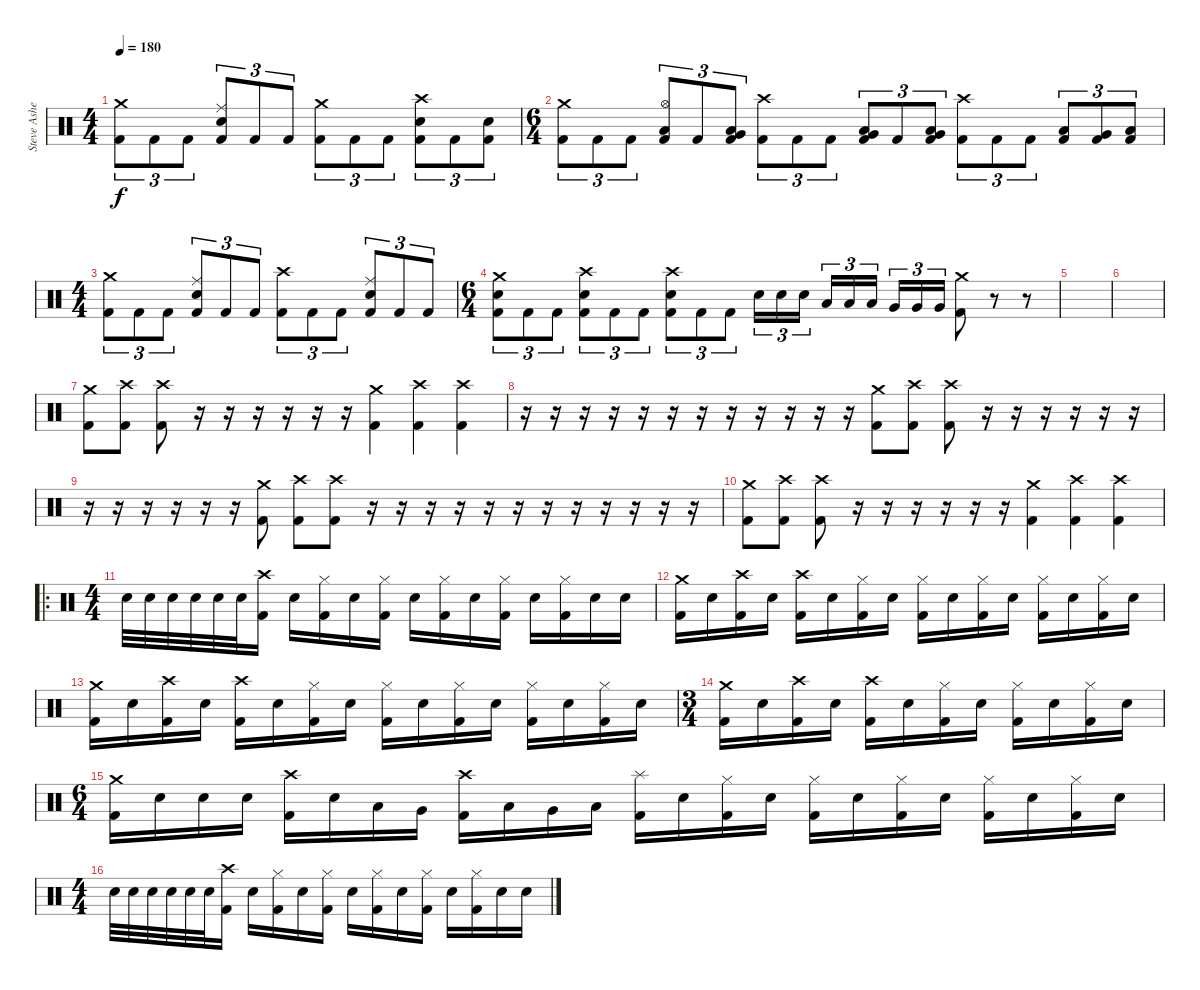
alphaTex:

\track ("Steve Asheim" "Steve Ashe") {instrument percussion}
\staff {score}
\articulation defaults
\ts (4 4)
\tempo 180
\clef neutral
\ks c
("Crash medium (hit)" "Kick (hit) 2").8{tu (3 2) dy f} "Kick (hit) 2".8{tu (3 2)} "Kick (hit) 2".8{tu (3 2)} ("Ride (middle)" "Snare (hit) 2" "Kick (hit) 2").8{tu (3 2)} "Kick (hit) 2".8{tu (3 2)} "Kick (hit) 2".8{tu (3 2)} ("Crash medium (hit)" "Kick (hit) 2").8{tu (3 2)} "Kick (hit) 2".8{tu (3 2)} "Kick (hit) 2".8{tu (3 2)} ("Crash high (hit)" "Snare (hit) 2" "Kick (hit) 2").8{tu (3 2)} "Kick (hit) 2".8{tu (3 2)} ("Snare (hit) 2" "Kick (hit) 2").8{tu (3 2)} |
\ts (6 4)
("Crash medium (hit)" "Kick (hit) 2").8{tu (3 2)} "Kick (hit) 2".8{tu (3 2)} "Kick (hit) 2".8{tu (3 2)} ("Hi-Hat (open)" "Low Tom (hit)" "Kick (hit) 2").8{tu (3 2)} "Kick (hit) 2".8{tu (3 2)} ("Low Tom (hit)" "Very Low Tom (hit)" "Kick (hit) 2").8{tu (3 2)} ("Crash high (hit)" "Kick (hit) 2").8{tu (3 2)} "Kick (hit) 2".8{tu (3 2)} "Kick (hit) 2".8{tu (3 2)} ("Low Tom (hit)" "Very Low Tom (hit)" "Kick (hit) 2").8{tu (3 2)} "Kick (hit) 2".8{tu (3 2)} ("Very Low Tom (hit)" "Low Floor Tom (hit)" "Kick (hit) 2").8{tu (3 2)} ("Crash high (hit)" "Kick (hit) 2").8{tu (3 2)} "Kick (hit) 2".8{tu (3 2)} "Kick (hit) 2".8{tu (3 2)} ("Low Tom (hit)" "Kick (hit) 2").8{tu (3 2)} ("Very Low Tom (hit)" "Kick (hit) 2").8{tu (3 2)} ("Low Floor Tom (hit)" "Kick (hit) 2").8{tu (3 2)} |
\ts (4 4)
("Crash medium (hit)" "Kick (hit) 2").8{tu (3 2)} "Kick (hit) 2".8{tu (3 2)} "Kick (hit) 2".8{tu (3 2)} ("Ride (middle)" "Snare (hit) 2" "Kick (hit) 2").8{tu (3 2)} "Kick (hit) 2".8{tu (3 2)} "Kick (hit) 2".8{tu (3 2)} ("Crash high (hit)" "Kick (hit) 2").8{tu (3 2)} "Kick (hit) 2".8{tu (3 2)} "Kick (hit) 2".8{tu (3 2)} ("Ride (middle)" "Snare (hit) 2" "Kick (hit) 2").8{tu (3 2)} "Kick (hit) 2".8{tu (3 2)} "Kick (hit) 2".8{tu (3 2)} |
\ts (6 4)
("Crash medium (hit)" "Snare (hit) 2" "Kick (hit) 2").8{tu (3 2)} "Kick (hit) 2".8{tu (3 2)} "Kick (hit) 2".8{tu (3 2)} ("Crash high (hit)" "Snare (hit) 2" "Kick (hit) 2").8{tu (3 2)} "Kick (hit) 2".8{tu (3 2)} "Kick (hit) 2".8{tu (3 2)} ("Crash high (hit)" "Snare (hit) 2" "Kick (hit) 2").8{tu (3 2)} "Kick (hit) 2".8{tu (3 2)} "Kick (hit) 2".8{tu (3 2)} "Snare (hit) 2".16{tu (3 2)} "Snare (hit) 2".16{tu (3 2)} "Snare (hit) 2".16{tu (3 2) beam splitsecondary} "Low Tom (hit)".16{tu (3 2)} "Low Tom (hit)".16{tu (3 2)} "Low Tom (hit)".16{tu (3 2) beam splitsecondary} "Very Low Tom (hit)".16{tu (3 2)} "Very Low Tom (hit)".16{tu (3 2)} "Very Low Tom (hit)".16{tu (3 2)} ("Crash medium (hit)" "Kick (hit) 2").8 r.8 r.8 |
|
|
("Crash medium (hit)" "Kick (hit) 2").8{volume 13} ("Crash high (hit)" "Kick (hit) 2").8 ("Crash high (hit)" "Kick (hit) 2").8 r.16 r.16 r.16 r.16 r.16 r.16 ("Crash medium (hit)" "Kick (hit) 2").4 ("Crash high (hit)" "Kick (hit) 2").4 ("Crash high (hit)" "Kick (hit) 2").4 |
r.16 r.16 r.16 r.16 r.16 r.16 r.16 r.16 r.16 r.16 r.16 r.16 ("Crash medium (hit)" "Kick (hit) 2").8{volume 13} ("Crash high (hit)" "Kick (hit) 2").8 ("Crash high (hit)" "Kick (hit) 2").8 r.16 r.16 r.16 r.16 r.16 r.16 |
r.16 r.16 r.16 r.16 r.16 r.16 ("Crash medium (hit)" "Kick (hit) 2").8{volume 13} ("Crash high (hit)" "Kick (hit) 2").8 ("Crash high (hit)" "Kick (hit) 2").8 r.16 r.16 r.16 r.16 r.16 r.16 r.16 r.16 r.16 r.16 r.16 r.16 |
("Crash medium (hit)" "Kick (hit) 2").8{volume 13} ("Crash high (hit)" "Kick (hit) 2").8 ("Crash high (hit)" "Kick (hit) 2").8 r.16 r.16 r.16 r.16 r.16 r.16 ("Crash medium (hit)" "Kick (hit) 2").4 ("Crash high (hit)" "Kick (hit) 2").4 ("Crash high (hit)" "Kick (hit) 2").4 |
\ro
\ts (4 4)
"Snare (hit) 2".32 "Snare (hit) 2".32 "Snare (hit) 2".32 "Snare (hit) 2".32 "Snare (hit) 2".32 "Snare (hit) 2".32 ("Crash high (hit)" "Kick (hit) 2").16 "Snare (hit) 2".16 ("Hi-Hat (closed)" "Kick (hit) 2").16 "Snare (hit) 2".16 ("Hi-Hat (closed)" "Kick (hit) 2").16 "Snare (hit) 2".16 ("Hi-Hat (closed)" "Kick (hit) 2").16 "Snare (hit) 2".16 ("Hi-Hat (closed)" "Kick (hit) 2").16 "Snare (hit) 2".16 ("Hi-Hat (closed)" "Kick (hit) 2").16 "Snare (hit) 2".16 "Snare (hit) 2".16 |
("Crash medium (hit)" "Kick (hit) 2").16 "Snare (hit) 2".16 ("Crash high (hit)" "Kick (hit) 2").16 "Snare (hit) 2".16 ("Crash high (hit)" "Kick (hit) 2").16 "Snare (hit) 2".16 ("Hi-Hat (closed)" "Kick (hit) 2").16 "Snare (hit) 2".16 ("Hi-Hat (closed)" "Kick (hit) 2").16 "Snare (hit) 2".16 ("Hi-Hat (closed)" "Kick (hit) 2").16 "Snare (hit) 2".16 ("Hi-Hat (closed)" "Kick (hit) 2").16 "Snare (hit) 2".16 ("Hi-Hat (closed)" "Kick (hit) 2").16 "Snare (hit) 2".16 |
("Crash medium (hit)" "Kick (hit) 2").16 "Snare (hit) 2".16 ("Crash high (hit)" "Kick (hit) 2").16 "Snare (hit) 2".16 ("Crash high (hit)" "Kick (hit) 2").16 "Snare (hit) 2".16 ("Hi-Hat (closed)" "Kick (hit) 2").16 "Snare (hit) 2".16 ("Hi-Hat (closed)" "Kick (hit) 2").16 "Snare (hit) 2".16 ("Hi-Hat (closed)" "Kick (hit) 2").16 "Snare (hit) 2".16 ("Hi-Hat (closed)" "Kick (hit) 2").16 "Snare (hit) 2".16 ("Hi-Hat (closed)" "Kick (hit) 2").16 "Snare (hit) 2".16 |
\ts (3 4)
("Crash medium (hit)" "Kick (hit) 2").16 "Snare (hit) 2".16 ("Crash high (hit)" "Kick (hit) 2").16 "Snare (hit) 2".16 ("Crash high (hit)" "Kick (hit) 2").16 "Snare (hit) 2".16 ("Hi-Hat (closed)" "Kick (hit) 2").16 "Snare (hit) 2".16 ("Hi-Hat (closed)" "Kick (hit) 2").16 "Snare (hit) 2".16 ("Hi-Hat (closed)" "Kick (hit) 2").16 "Snare (hit) 2".16 |
\ts (6 4)
("Crash medium (hit)" "Kick (hit) 2").16 "Snare (hit) 2".16 "Snare (hit) 2".16 "Snare (hit) 2".16 ("Crash high (hit)" "Kick (hit) 2").16 "Snare (hit) 2".16 "Low Tom (hit)".16 "Very Low Tom (hit)".16 ("Crash high (hit)" "Kick (hit) 2").16 "Low Tom (hit)".16 "Very Low Tom (hit)".16 "Low Floor Tom (hit)".16 ("Splash (hit)" "Kick (hit) 2").16 "Snare (hit) 2".16 ("Hi-Hat (closed)" "Kick (hit) 2").16 "Snare (hit) 2".16 ("Hi-Hat (closed)" "Kick (hit) 2").16 "Snare (hit) 2".16 ("Hi-Hat (closed)" "Kick (hit) 2").16 "Snare (hit) 2".16 ("Hi-Hat (closed)" "Kick (hit) 2").16 "Snare (hit) 2".16 ("Hi-Hat (closed)" "Kick (hit) 2").16 "Snare (hit) 2".16 |
\ts (4 4)
"Snare (hit) 2".32 "Snare (hit) 2".32 "Snare (hit) 2".32 "Snare (hit) 2".32 "Snare (hit) 2".32 "Snare (hit) 2".32 ("Crash high (hit)" "Kick (hit) 2").16 "Snare (hit) 2".16 ("Hi-Hat (closed)" "Kick (hit) 2").16 "Snare (hit) 2".16 ("Hi-Hat (closed)" "Kick (hit) 2").16 "Snare (hit) 2".16 ("Hi-Hat (closed)" "Kick (hit) 2").16 "Snare (hit) 2".16 ("Hi-Hat (closed)" "Kick (hit) 2").16 "Snare (hit) 2".16 ("Hi-Hat (closed)" "Kick (hit) 2").16 "Snare (hit) 2".16 "Snare (hit) 2".16
